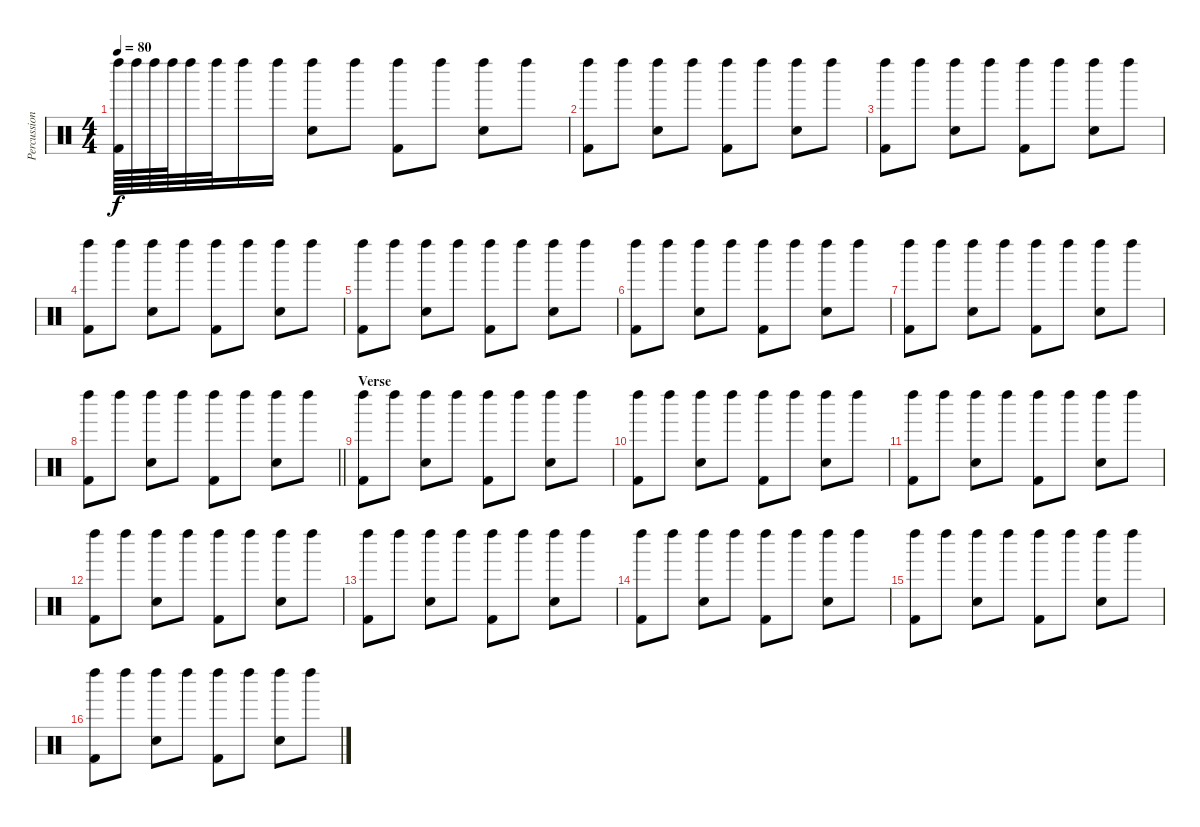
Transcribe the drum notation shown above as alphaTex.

\track ("Percussion" "Percussion") {instrument percussion}
\staff {score}
\articulation defaults
\ts (4 4)
\tempo 80
\clef neutral
\ks c
("Left Maraca (hit)" "Kick (hit) 2").64{dy f} "Left Maraca (hit)".64 "Left Maraca (hit)".64 "Left Maraca (hit)".64 "Left Maraca (hit)".32 "Left Maraca (hit)".32 "Left Maraca (hit)".16 "Left Maraca (hit)".16 ("Left Maraca (hit)" "Electric Snare (hit)").8 "Left Maraca (hit)".8 ("Left Maraca (hit)" "Kick (hit) 2").8 "Left Maraca (hit)".8 ("Left Maraca (hit)" "Electric Snare (hit)").8 "Left Maraca (hit)".8 |
("Left Maraca (hit)" "Kick (hit) 2").8 "Left Maraca (hit)".8 ("Left Maraca (hit)" "Electric Snare (hit)").8 "Left Maraca (hit)".8 ("Left Maraca (hit)" "Kick (hit) 2").8 "Left Maraca (hit)".8 ("Left Maraca (hit)" "Electric Snare (hit)").8 "Left Maraca (hit)".8 |
("Left Maraca (hit)" "Kick (hit) 2").8 "Left Maraca (hit)".8 ("Left Maraca (hit)" "Electric Snare (hit)").8 "Left Maraca (hit)".8 ("Left Maraca (hit)" "Kick (hit) 2").8 "Left Maraca (hit)".8 ("Left Maraca (hit)" "Electric Snare (hit)").8 "Left Maraca (hit)".8 |
("Left Maraca (hit)" "Kick (hit) 2").8 "Left Maraca (hit)".8 ("Left Maraca (hit)" "Electric Snare (hit)").8 "Left Maraca (hit)".8 ("Left Maraca (hit)" "Kick (hit) 2").8 "Left Maraca (hit)".8 ("Left Maraca (hit)" "Electric Snare (hit)").8 "Left Maraca (hit)".8 |
("Left Maraca (hit)" "Kick (hit) 2").8 "Left Maraca (hit)".8 ("Left Maraca (hit)" "Electric Snare (hit)").8 "Left Maraca (hit)".8 ("Left Maraca (hit)" "Kick (hit) 2").8 "Left Maraca (hit)".8 ("Left Maraca (hit)" "Electric Snare (hit)").8 "Left Maraca (hit)".8 |
("Left Maraca (hit)" "Kick (hit) 2").8 "Left Maraca (hit)".8 ("Left Maraca (hit)" "Electric Snare (hit)").8 "Left Maraca (hit)".8 ("Left Maraca (hit)" "Kick (hit) 2").8 "Left Maraca (hit)".8 ("Left Maraca (hit)" "Electric Snare (hit)").8 "Left Maraca (hit)".8 |
("Left Maraca (hit)" "Kick (hit) 2").8 "Left Maraca (hit)".8 ("Left Maraca (hit)" "Electric Snare (hit)").8 "Left Maraca (hit)".8 ("Left Maraca (hit)" "Kick (hit) 2").8 "Left Maraca (hit)".8 ("Left Maraca (hit)" "Electric Snare (hit)").8 "Left Maraca (hit)".8 |
\barLineRight lightlight
("Left Maraca (hit)" "Kick (hit) 2").8 "Left Maraca (hit)".8 ("Left Maraca (hit)" "Electric Snare (hit)").8 "Left Maraca (hit)".8 ("Left Maraca (hit)" "Kick (hit) 2").8 "Left Maraca (hit)".8 ("Left Maraca (hit)" "Electric Snare (hit)").8 "Left Maraca (hit)".8 |
\section ("" "Verse")
("Left Maraca (hit)" "Kick (hit) 2").8 "Left Maraca (hit)".8 ("Left Maraca (hit)" "Electric Snare (hit)").8 "Left Maraca (hit)".8 ("Left Maraca (hit)" "Kick (hit) 2").8 "Left Maraca (hit)".8 ("Left Maraca (hit)" "Electric Snare (hit)").8 "Left Maraca (hit)".8 |
("Left Maraca (hit)" "Kick (hit) 2").8 "Left Maraca (hit)".8 ("Left Maraca (hit)" "Electric Snare (hit)").8 "Left Maraca (hit)".8 ("Left Maraca (hit)" "Kick (hit) 2").8 "Left Maraca (hit)".8 ("Left Maraca (hit)" "Electric Snare (hit)").8 "Left Maraca (hit)".8 |
("Left Maraca (hit)" "Kick (hit) 2").8 "Left Maraca (hit)".8 ("Left Maraca (hit)" "Electric Snare (hit)").8 "Left Maraca (hit)".8 ("Left Maraca (hit)" "Kick (hit) 2").8 "Left Maraca (hit)".8 ("Left Maraca (hit)" "Electric Snare (hit)").8 "Left Maraca (hit)".8 |
("Left Maraca (hit)" "Kick (hit) 2").8 "Left Maraca (hit)".8 ("Left Maraca (hit)" "Electric Snare (hit)").8 "Left Maraca (hit)".8 ("Left Maraca (hit)" "Kick (hit) 2").8 "Left Maraca (hit)".8 ("Left Maraca (hit)" "Electric Snare (hit)").8 "Left Maraca (hit)".8 |
("Left Maraca (hit)" "Kick (hit) 2").8 "Left Maraca (hit)".8 ("Left Maraca (hit)" "Electric Snare (hit)").8 "Left Maraca (hit)".8 ("Left Maraca (hit)" "Kick (hit) 2").8 "Left Maraca (hit)".8 ("Left Maraca (hit)" "Electric Snare (hit)").8 "Left Maraca (hit)".8 |
("Left Maraca (hit)" "Kick (hit) 2").8 "Left Maraca (hit)".8 ("Left Maraca (hit)" "Electric Snare (hit)").8 "Left Maraca (hit)".8 ("Left Maraca (hit)" "Kick (hit) 2").8 "Left Maraca (hit)".8 ("Left Maraca (hit)" "Electric Snare (hit)").8 "Left Maraca (hit)".8 |
("Left Maraca (hit)" "Kick (hit) 2").8 "Left Maraca (hit)".8 ("Left Maraca (hit)" "Electric Snare (hit)").8 "Left Maraca (hit)".8 ("Left Maraca (hit)" "Kick (hit) 2").8 "Left Maraca (hit)".8 ("Left Maraca (hit)" "Electric Snare (hit)").8 "Left Maraca (hit)".8 |
("Left Maraca (hit)" "Kick (hit) 2").8 "Left Maraca (hit)".8 ("Left Maraca (hit)" "Electric Snare (hit)").8 "Left Maraca (hit)".8 ("Left Maraca (hit)" "Kick (hit) 2").8 "Left Maraca (hit)".8 ("Left Maraca (hit)" "Electric Snare (hit)").8 "Left Maraca (hit)".8
